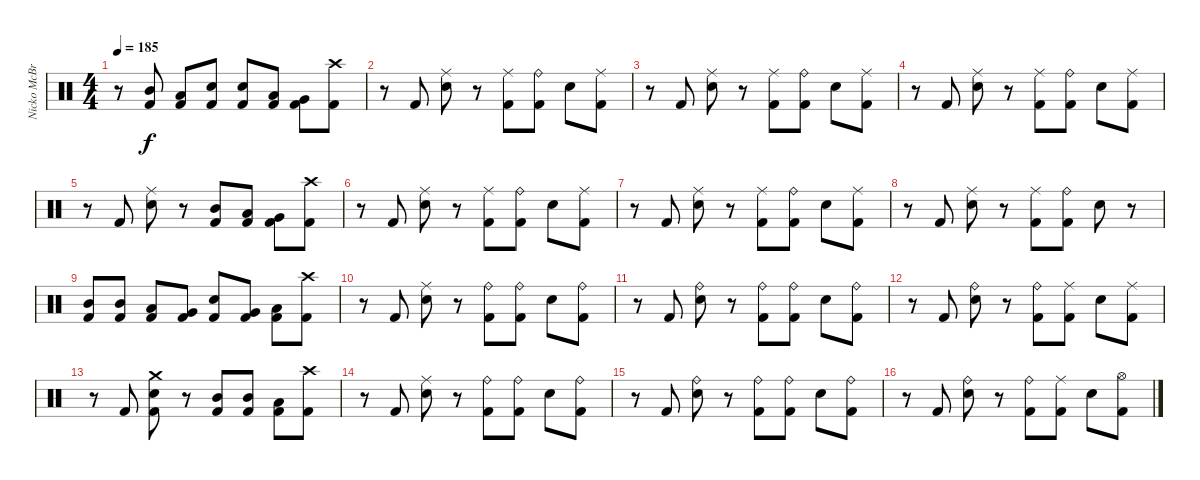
\track ("Nicko McBrain" "Nicko McBr") {instrument percussion}
\staff {score}
\articulation defaults
\ts (4 4)
\tempo 185
\clef neutral
\ks c
r.8{dy f} ("Mid Tom (hit)" "Kick (hit) 2").8 ("Low Tom (hit)" "Kick (hit) 2").8 ("Snare (hit) 2" "Kick (hit) 2").8 ("Snare (hit) 2" "Kick (hit) 2").8 ("Low Tom (hit)" "Kick (hit) 2").8 ("Very Low Tom (hit)" "Kick (hit) 2").8 ("Crash high (hit)" "Kick (hit) 2").8 |
r.8 "Kick (hit) 2".8 ("Ride (middle)" "Snare (hit) 2").8 r.8 ("Ride (middle)" "Kick (hit) 2").8 ("Ride (bell)" "Kick (hit) 2").8 "Snare (hit) 2".8 ("Ride (middle)" "Kick (hit) 2").8 |
r.8 "Kick (hit) 2".8 ("Ride (middle)" "Snare (hit) 2").8 r.8 ("Ride (middle)" "Kick (hit) 2").8 ("Ride (bell)" "Kick (hit) 2").8 "Snare (hit) 2".8 ("Ride (middle)" "Kick (hit) 2").8 |
r.8 "Kick (hit) 2".8 ("Ride (middle)" "Snare (hit) 2").8 r.8 ("Ride (middle)" "Kick (hit) 2").8 ("Ride (bell)" "Kick (hit) 2").8 "Snare (hit) 2".8 ("Ride (middle)" "Kick (hit) 2").8 |
r.8 "Kick (hit) 2".8 ("Ride (middle)" "Snare (hit) 2").8 r.8 ("Mid Tom (hit)" "Kick (hit) 2").8 ("Low Tom (hit)" "Kick (hit) 2").8 ("Very Low Tom (hit)" "Kick (hit) 2").8 ("Crash high (hit)" "Kick (hit) 2").8 |
r.8 "Kick (hit) 2".8 ("Ride (middle)" "Snare (hit) 2").8 r.8 ("Ride (middle)" "Kick (hit) 2").8 ("Ride (bell)" "Kick (hit) 2").8 "Snare (hit) 2".8 ("Ride (middle)" "Kick (hit) 2").8 |
r.8 "Kick (hit) 2".8 ("Ride (middle)" "Snare (hit) 2").8 r.8 ("Ride (middle)" "Kick (hit) 2").8 ("Ride (bell)" "Kick (hit) 2").8 "Snare (hit) 2".8 ("Ride (middle)" "Kick (hit) 2").8 |
r.8 "Kick (hit) 2".8 ("Ride (middle)" "Snare (hit) 2").8 r.8 ("Ride (middle)" "Kick (hit) 2").8 ("Ride (bell)" "Kick (hit) 2").8 "Snare (hit) 2".8 r.8 |
("Mid Tom (hit)" "Kick (hit) 2").8 ("Mid Tom (hit)" "Kick (hit) 2").8 ("Low Tom (hit)" "Kick (hit) 2").8 ("Very Low Tom (hit)" "Kick (hit) 2").8 ("Snare (hit) 2" "Kick (hit) 2").8 ("Very Low Tom (hit)" "Kick (hit) 2").8 ("Low Floor Tom (hit)" "Kick (hit) 2").8 ("Crash high (hit)" "Kick (hit) 2").8 |
r.8 "Kick (hit) 2".8 ("Ride (middle)" "Snare (hit) 2").8 r.8 ("Ride (bell)" "Kick (hit) 2").8 ("Ride (bell)" "Kick (hit) 2").8 "Snare (hit) 2".8 ("Ride (bell)" "Kick (hit) 2").8 |
r.8 "Kick (hit) 2".8 ("Ride (bell)" "Snare (hit) 2").8 r.8 ("Ride (bell)" "Kick (hit) 2").8 ("Ride (bell)" "Kick (hit) 2").8 "Snare (hit) 2".8 ("Ride (bell)" "Kick (hit) 2").8 |
r.8 "Kick (hit) 2".8 ("Ride (bell)" "Snare (hit) 2").8 r.8 ("Ride (bell)" "Kick (hit) 2").8 ("Ride (middle)" "Kick (hit) 2").8 "Snare (hit) 2".8 ("Ride (middle)" "Kick (hit) 2").8 |
r.8 "Kick (hit) 2".8 ("Crash medium (hit)" "Snare (hit) 2" "Kick (hit) 2").8 r.8 ("Mid Tom (hit)" "Kick (hit) 2").8 ("Mid Tom (hit)" "Kick (hit) 2").8 ("Low Tom (hit)" "Kick (hit) 2").8 ("Crash high (hit)" "Kick (hit) 2").8 |
r.8 "Kick (hit) 2".8 ("Ride (middle)" "Snare (hit) 2").8 r.8 ("Ride (bell)" "Kick (hit) 2").8 ("Ride (bell)" "Kick (hit) 2").8 "Snare (hit) 2".8 ("Ride (bell)" "Kick (hit) 2").8 |
r.8 "Kick (hit) 2".8 ("Ride (bell)" "Snare (hit) 2").8 r.8 ("Ride (bell)" "Kick (hit) 2").8 ("Ride (bell)" "Kick (hit) 2").8 "Snare (hit) 2".8 ("Ride (bell)" "Kick (hit) 2").8 |
r.8 "Kick (hit) 2".8 ("Ride (bell)" "Snare (hit) 2").8 r.8 ("Ride (bell)" "Kick (hit) 2").8 ("Ride (middle)" "Kick (hit) 2").8 "Snare (hit) 2".8 ("Hi-Hat (open)" "Kick (hit) 2").8
